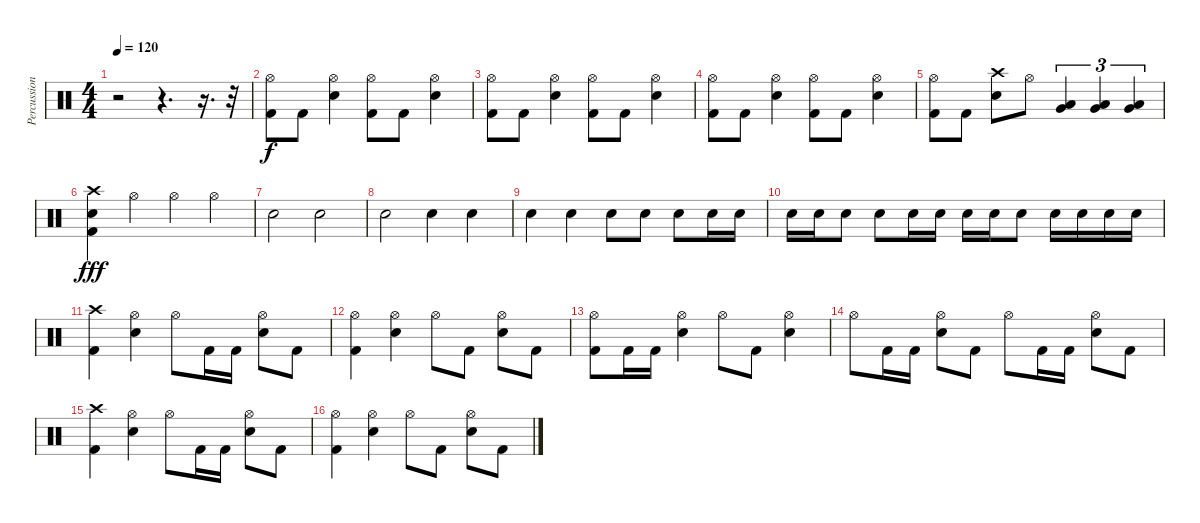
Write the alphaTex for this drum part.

\track ("Percussion" "Percussion") {instrument percussion}
\staff {score}
\articulation defaults
\ts (4 4)
\tempo 120
\clef neutral
\ks c
r.2{dy f} r.4{d volume 0} r.16{d} r.32{volume 16} |
("Hi-Hat (open)" "Kick (hit) 2").8 "Kick (hit) 2".8 ("Hi-Hat (open)" "Snare (hit) 2").4 ("Hi-Hat (open)" "Kick (hit) 2").8 "Kick (hit) 2".8 ("Hi-Hat (open)" "Snare (hit) 2").4 |
("Hi-Hat (open)" "Kick (hit) 2").8 "Kick (hit) 2".8 ("Hi-Hat (open)" "Snare (hit) 2").4 ("Hi-Hat (open)" "Kick (hit) 2").8 "Kick (hit) 2".8 ("Hi-Hat (open)" "Snare (hit) 2").4 |
("Hi-Hat (open)" "Kick (hit) 2").8 "Kick (hit) 2".8 ("Hi-Hat (open)" "Snare (hit) 2").4 ("Hi-Hat (open)" "Kick (hit) 2").8 "Kick (hit) 2".8 ("Hi-Hat (open)" "Snare (hit) 2").4 |
("Hi-Hat (open)" "Kick (hit) 2").8 "Kick (hit) 2".8 ("Crash high (hit)" "Snare (hit) 2").8 "Hi-Hat (open)".8 ("Very Low Tom (hit)" "Low Tom (hit)").4{tu (3 2)} ("Very Low Tom (hit)" "Low Tom (hit)").4{tu (3 2)} ("Very Low Tom (hit)" "Low Tom (hit)").4{tu (3 2)} |
("Crash high (hit)" "Snare (hit) 2" "Kick (hit) 2").4{bd 120 dy fff} "Hi-Hat (open)".4 "Hi-Hat (open)".4 "Hi-Hat (open)".4 |
"Snare (hit) 2".2 "Snare (hit) 2".2 |
"Snare (hit) 2".2 "Snare (hit) 2".4 "Snare (hit) 2".4 |
"Snare (hit) 2".4 "Snare (hit) 2".4 "Snare (hit) 2".8 "Snare (hit) 2".8 "Snare (hit) 2".8 "Snare (hit) 2".16 "Snare (hit) 2".16 |
"Snare (hit) 2".16 "Snare (hit) 2".16 "Snare (hit) 2".8 "Snare (hit) 2".8 "Snare (hit) 2".16 "Snare (hit) 2".16 "Snare (hit) 2".16 "Snare (hit) 2".16 "Snare (hit) 2".8 "Snare (hit) 2".16 "Snare (hit) 2".16 "Snare (hit) 2".16 "Snare (hit) 2".16 |
("Crash high (hit)" "Kick (hit) 2").4 ("Hi-Hat (open)" "Snare (hit) 2").4 "Hi-Hat (open)".8 "Kick (hit) 2".16 "Kick (hit) 2".16 ("Hi-Hat (open)" "Snare (hit) 2").8 "Kick (hit) 2".8 |
("Hi-Hat (open)" "Kick (hit) 2").4 ("Hi-Hat (open)" "Snare (hit) 2").4 "Hi-Hat (open)".8 "Kick (hit) 2".8 ("Hi-Hat (open)" "Snare (hit) 2").8 "Kick (hit) 2".8 |
("Hi-Hat (open)" "Kick (hit) 2").8 "Kick (hit) 2".16 "Kick (hit) 2".16 ("Hi-Hat (open)" "Snare (hit) 2").4 "Hi-Hat (open)".8 "Kick (hit) 2".8 ("Hi-Hat (open)" "Snare (hit) 2").4 |
"Hi-Hat (open)".8 "Kick (hit) 2".16 "Kick (hit) 2".16 ("Hi-Hat (open)" "Snare (hit) 2").8 "Kick (hit) 2".8 "Hi-Hat (open)".8 "Kick (hit) 2".16 "Kick (hit) 2".16 ("Hi-Hat (open)" "Snare (hit) 2").8 "Kick (hit) 2".8 |
("Crash high (hit)" "Kick (hit) 2").4 ("Hi-Hat (open)" "Snare (hit) 2").4 "Hi-Hat (open)".8 "Kick (hit) 2".16 "Kick (hit) 2".16 ("Hi-Hat (open)" "Snare (hit) 2").8 "Kick (hit) 2".8 |
("Hi-Hat (open)" "Kick (hit) 2").4 ("Hi-Hat (open)" "Snare (hit) 2").4 "Hi-Hat (open)".8 "Kick (hit) 2".8 ("Hi-Hat (open)" "Snare (hit) 2").8 "Kick (hit) 2".8
